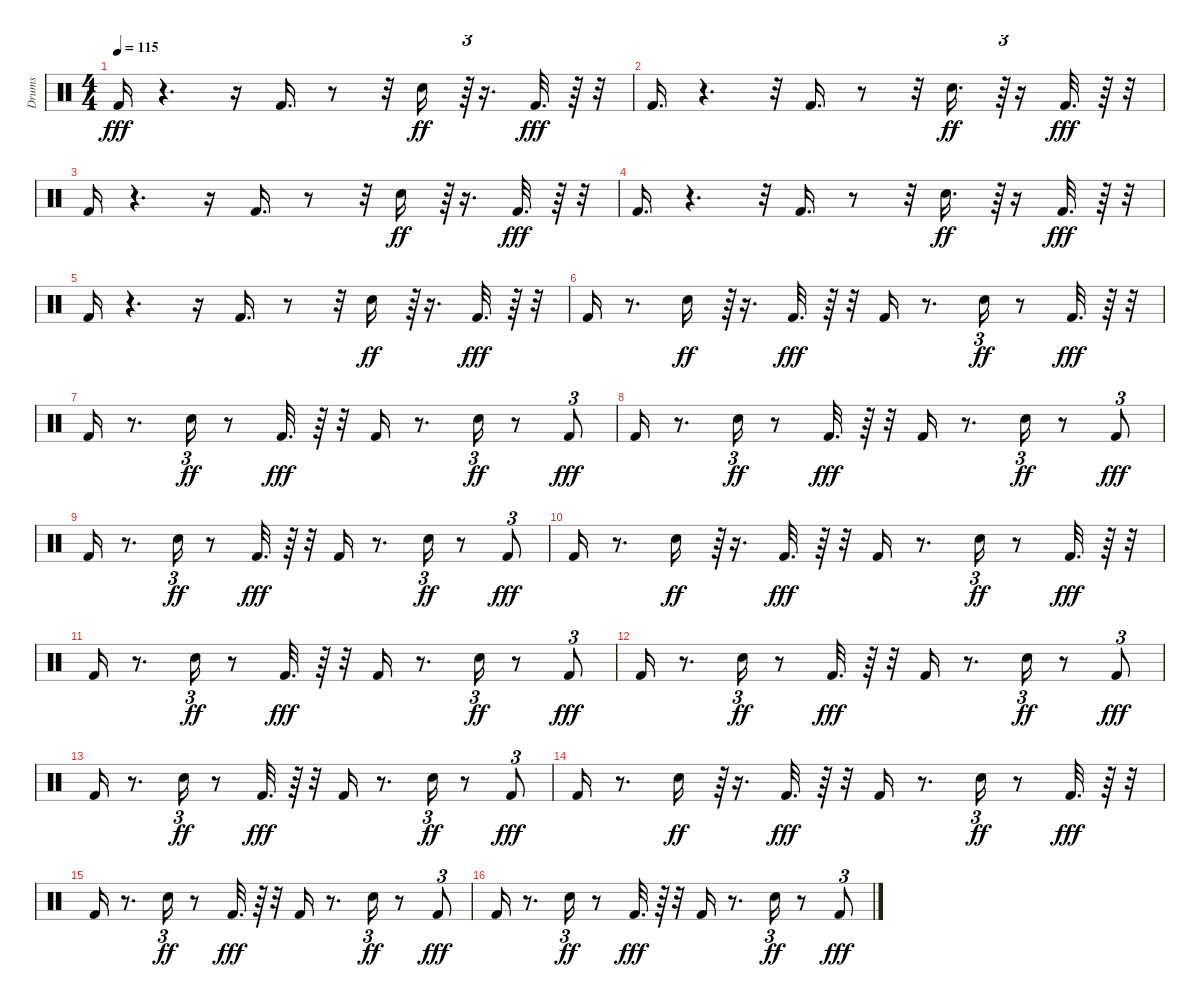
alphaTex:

\track ("Drums" "Drums") {instrument percussion}
\staff {score}
\articulation defaults
\ts (4 4)
\tempo 115
\clef neutral
\ks c "Kick (hit) 2".16{dy fff}
r.4{d} r.16 "Kick (hit) 2".16{d} r.8 r.32 "Electric Snare (hit)".16{dy ff} r.64{tu (3 2)} r.16{d} "Kick (hit) 2".32{d dy fff} r.64 r.32 |
"Kick (hit) 2".16{d} r.4{d} r.32 "Kick (hit) 2".16{d} r.8 r.32 "Electric Snare (hit)".16{d dy ff} r.64{tu (3 2)} r.16 "Kick (hit) 2".32{d dy fff} r.64 r.32 |
"Kick (hit) 2".16 r.4{d} r.16 "Kick (hit) 2".16{d} r.8 r.32 "Electric Snare (hit)".16{dy ff} r.64{tu (3 2)} r.16{d} "Kick (hit) 2".32{d dy fff} r.64 r.32 |
"Kick (hit) 2".16{d} r.4{d} r.32 "Kick (hit) 2".16{d} r.8 r.32 "Electric Snare (hit)".16{d dy ff} r.64{tu (3 2)} r.16 "Kick (hit) 2".32{d dy fff} r.64 r.32 |
"Kick (hit) 2".16 r.4{d} r.16 "Kick (hit) 2".16{d} r.8 r.32 "Electric Snare (hit)".16{dy ff} r.64{tu (3 2)} r.16{d} "Kick (hit) 2".32{d dy fff} r.64 r.32 |
"Kick (hit) 2".16 r.8{d} "Electric Snare (hit)".16{dy ff} r.64{tu (3 2)} r.16{d} "Kick (hit) 2".32{d dy fff} r.64 r.32 "Kick (hit) 2".16 r.8{d} "Electric Snare (hit)".16{tu (3 2) dy ff} r.8 "Kick (hit) 2".32{d dy fff} r.64 r.32 |
"Kick (hit) 2".16 r.8{d} "Electric Snare (hit)".16{tu (3 2) dy ff} r.8 "Kick (hit) 2".32{d dy fff} r.64 r.32 "Kick (hit) 2".16 r.8{d} "Electric Snare (hit)".16{tu (3 2) dy ff} r.8 "Kick (hit) 2".8{tu (3 2) dy fff} |
"Kick (hit) 2".16 r.8{d} "Electric Snare (hit)".16{tu (3 2) dy ff} r.8 "Kick (hit) 2".32{d dy fff} r.64 r.32 "Kick (hit) 2".16 r.8{d} "Electric Snare (hit)".16{tu (3 2) dy ff} r.8 "Kick (hit) 2".8{tu (3 2) dy fff} |
"Kick (hit) 2".16 r.8{d} "Electric Snare (hit)".16{tu (3 2) dy ff} r.8 "Kick (hit) 2".32{d dy fff} r.64 r.32 "Kick (hit) 2".16 r.8{d} "Electric Snare (hit)".16{tu (3 2) dy ff} r.8 "Kick (hit) 2".8{tu (3 2) dy fff} |
"Kick (hit) 2".16 r.8{d} "Electric Snare (hit)".16{dy ff} r.64{tu (3 2)} r.16{d} "Kick (hit) 2".32{d dy fff} r.64 r.32 "Kick (hit) 2".16 r.8{d} "Electric Snare (hit)".16{tu (3 2) dy ff} r.8 "Kick (hit) 2".32{d dy fff} r.64 r.32 |
"Kick (hit) 2".16 r.8{d} "Electric Snare (hit)".16{tu (3 2) dy ff} r.8 "Kick (hit) 2".32{d dy fff} r.64 r.32 "Kick (hit) 2".16 r.8{d} "Electric Snare (hit)".16{tu (3 2) dy ff} r.8 "Kick (hit) 2".8{tu (3 2) dy fff} |
"Kick (hit) 2".16 r.8{d} "Electric Snare (hit)".16{tu (3 2) dy ff} r.8 "Kick (hit) 2".32{d dy fff} r.64 r.32 "Kick (hit) 2".16 r.8{d} "Electric Snare (hit)".16{tu (3 2) dy ff} r.8 "Kick (hit) 2".8{tu (3 2) dy fff} |
"Kick (hit) 2".16 r.8{d} "Electric Snare (hit)".16{tu (3 2) dy ff} r.8 "Kick (hit) 2".32{d dy fff} r.64 r.32 "Kick (hit) 2".16 r.8{d} "Electric Snare (hit)".16{tu (3 2) dy ff} r.8 "Kick (hit) 2".8{tu (3 2) dy fff} |
"Kick (hit) 2".16 r.8{d} "Electric Snare (hit)".16{dy ff} r.64{tu (3 2)} r.16{d} "Kick (hit) 2".32{d dy fff} r.64 r.32 "Kick (hit) 2".16 r.8{d} "Electric Snare (hit)".16{tu (3 2) dy ff} r.8 "Kick (hit) 2".32{d dy fff} r.64 r.32 |
"Kick (hit) 2".16 r.8{d} "Electric Snare (hit)".16{tu (3 2) dy ff} r.8 "Kick (hit) 2".32{d dy fff} r.64 r.32 "Kick (hit) 2".16 r.8{d} "Electric Snare (hit)".16{tu (3 2) dy ff} r.8 "Kick (hit) 2".8{tu (3 2) dy fff} |
"Kick (hit) 2".16 r.8{d} "Electric Snare (hit)".16{tu (3 2) dy ff} r.8 "Kick (hit) 2".32{d dy fff} r.64 r.32 "Kick (hit) 2".16 r.8{d} "Electric Snare (hit)".16{tu (3 2) dy ff} r.8 "Kick (hit) 2".8{tu (3 2) dy fff}
